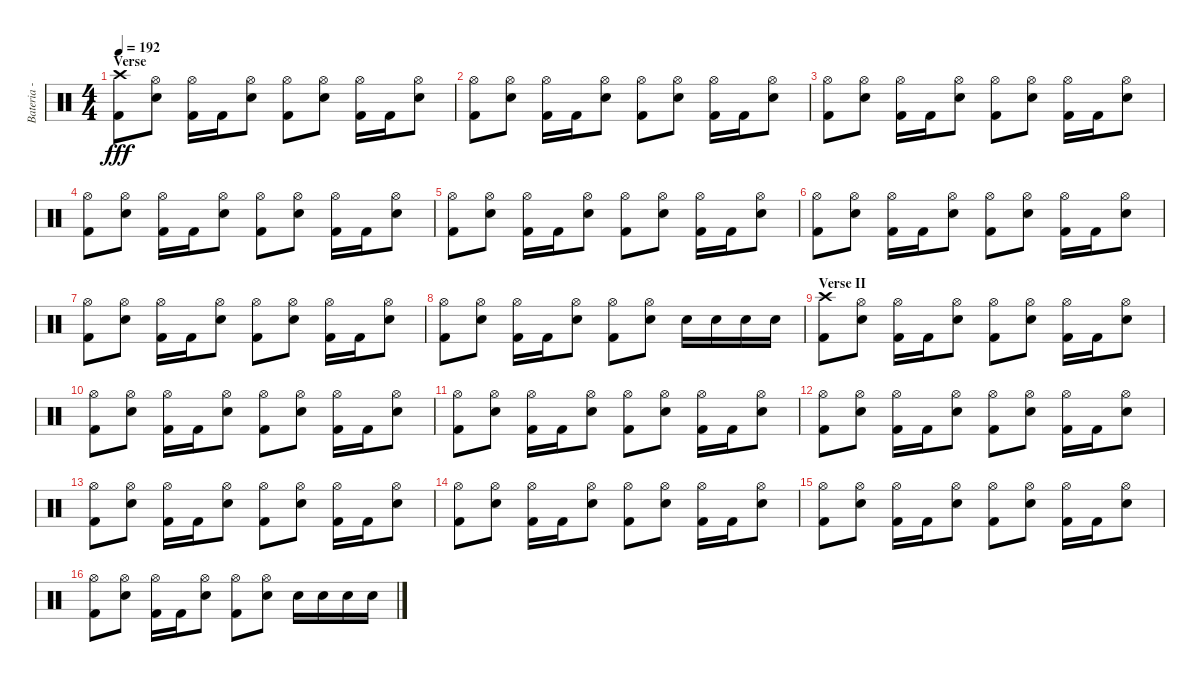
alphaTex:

\track ("Bateria - Larzon" "Bateria - ") {instrument percussion}
\staff {score}
\articulation defaults
\ts (4 4)
\section ("" "Verse")
\tempo 192
\clef neutral
\ks c
("Kick (hit) 2" "Crash high (hit)").8{dy fff} ("Electric Snare (hit)" "Hi-Hat (open)").8 ("Kick (hit) 2" "Hi-Hat (open)").16 "Kick (hit) 2".16 ("Electric Snare (hit)" "Hi-Hat (open)").8 ("Kick (hit) 2" "Hi-Hat (open)").8 ("Electric Snare (hit)" "Hi-Hat (open)").8 ("Kick (hit) 2" "Hi-Hat (open)").16 "Kick (hit) 2".16 ("Electric Snare (hit)" "Hi-Hat (open)").8 |
("Kick (hit) 2" "Hi-Hat (open)").8 ("Electric Snare (hit)" "Hi-Hat (open)").8 ("Kick (hit) 2" "Hi-Hat (open)").16 "Kick (hit) 2".16 ("Electric Snare (hit)" "Hi-Hat (open)").8 ("Kick (hit) 2" "Hi-Hat (open)").8 ("Electric Snare (hit)" "Hi-Hat (open)").8 ("Kick (hit) 2" "Hi-Hat (open)").16 "Kick (hit) 2".16 ("Electric Snare (hit)" "Hi-Hat (open)").8 |
("Kick (hit) 2" "Hi-Hat (open)").8 ("Electric Snare (hit)" "Hi-Hat (open)").8 ("Kick (hit) 2" "Hi-Hat (open)").16 "Kick (hit) 2".16 ("Electric Snare (hit)" "Hi-Hat (open)").8 ("Kick (hit) 2" "Hi-Hat (open)").8 ("Electric Snare (hit)" "Hi-Hat (open)").8 ("Kick (hit) 2" "Hi-Hat (open)").16 "Kick (hit) 2".16 ("Electric Snare (hit)" "Hi-Hat (open)").8 |
("Kick (hit) 2" "Hi-Hat (open)").8 ("Electric Snare (hit)" "Hi-Hat (open)").8 ("Kick (hit) 2" "Hi-Hat (open)").16 "Kick (hit) 2".16 ("Electric Snare (hit)" "Hi-Hat (open)").8 ("Kick (hit) 2" "Hi-Hat (open)").8 ("Electric Snare (hit)" "Hi-Hat (open)").8 ("Kick (hit) 2" "Hi-Hat (open)").16 "Kick (hit) 2".16 ("Electric Snare (hit)" "Hi-Hat (open)").8 |
("Kick (hit) 2" "Hi-Hat (open)").8 ("Electric Snare (hit)" "Hi-Hat (open)").8 ("Kick (hit) 2" "Hi-Hat (open)").16 "Kick (hit) 2".16 ("Electric Snare (hit)" "Hi-Hat (open)").8 ("Kick (hit) 2" "Hi-Hat (open)").8 ("Electric Snare (hit)" "Hi-Hat (open)").8 ("Kick (hit) 2" "Hi-Hat (open)").16 "Kick (hit) 2".16 ("Electric Snare (hit)" "Hi-Hat (open)").8 |
("Kick (hit) 2" "Hi-Hat (open)").8 ("Electric Snare (hit)" "Hi-Hat (open)").8 ("Kick (hit) 2" "Hi-Hat (open)").16 "Kick (hit) 2".16 ("Electric Snare (hit)" "Hi-Hat (open)").8 ("Kick (hit) 2" "Hi-Hat (open)").8 ("Electric Snare (hit)" "Hi-Hat (open)").8 ("Kick (hit) 2" "Hi-Hat (open)").16 "Kick (hit) 2".16 ("Electric Snare (hit)" "Hi-Hat (open)").8 |
("Kick (hit) 2" "Hi-Hat (open)").8 ("Electric Snare (hit)" "Hi-Hat (open)").8 ("Kick (hit) 2" "Hi-Hat (open)").16 "Kick (hit) 2".16 ("Electric Snare (hit)" "Hi-Hat (open)").8 ("Kick (hit) 2" "Hi-Hat (open)").8 ("Electric Snare (hit)" "Hi-Hat (open)").8 ("Kick (hit) 2" "Hi-Hat (open)").16 "Kick (hit) 2".16 ("Electric Snare (hit)" "Hi-Hat (open)").8 |
("Kick (hit) 2" "Hi-Hat (open)").8 ("Electric Snare (hit)" "Hi-Hat (open)").8 ("Kick (hit) 2" "Hi-Hat (open)").16 "Kick (hit) 2".16 ("Electric Snare (hit)" "Hi-Hat (open)").8 ("Kick (hit) 2" "Hi-Hat (open)").8 ("Electric Snare (hit)" "Hi-Hat (open)").8 "Electric Snare (hit)".16 "Electric Snare (hit)".16 "Electric Snare (hit)".16 "Electric Snare (hit)".16 |
\section ("" "Verse II")
("Kick (hit) 2" "Crash high (hit)").8 ("Electric Snare (hit)" "Hi-Hat (open)").8 ("Kick (hit) 2" "Hi-Hat (open)").16 "Kick (hit) 2".16 ("Electric Snare (hit)" "Hi-Hat (open)").8 ("Kick (hit) 2" "Hi-Hat (open)").8 ("Electric Snare (hit)" "Hi-Hat (open)").8 ("Kick (hit) 2" "Hi-Hat (open)").16 "Kick (hit) 2".16 ("Electric Snare (hit)" "Hi-Hat (open)").8 |
("Kick (hit) 2" "Hi-Hat (open)").8 ("Electric Snare (hit)" "Hi-Hat (open)").8 ("Kick (hit) 2" "Hi-Hat (open)").16 "Kick (hit) 2".16 ("Electric Snare (hit)" "Hi-Hat (open)").8 ("Kick (hit) 2" "Hi-Hat (open)").8 ("Electric Snare (hit)" "Hi-Hat (open)").8 ("Kick (hit) 2" "Hi-Hat (open)").16 "Kick (hit) 2".16 ("Electric Snare (hit)" "Hi-Hat (open)").8 |
("Kick (hit) 2" "Hi-Hat (open)").8 ("Electric Snare (hit)" "Hi-Hat (open)").8 ("Kick (hit) 2" "Hi-Hat (open)").16 "Kick (hit) 2".16 ("Electric Snare (hit)" "Hi-Hat (open)").8 ("Kick (hit) 2" "Hi-Hat (open)").8 ("Electric Snare (hit)" "Hi-Hat (open)").8 ("Kick (hit) 2" "Hi-Hat (open)").16 "Kick (hit) 2".16 ("Electric Snare (hit)" "Hi-Hat (open)").8 |
("Kick (hit) 2" "Hi-Hat (open)").8 ("Electric Snare (hit)" "Hi-Hat (open)").8 ("Kick (hit) 2" "Hi-Hat (open)").16 "Kick (hit) 2".16 ("Electric Snare (hit)" "Hi-Hat (open)").8 ("Kick (hit) 2" "Hi-Hat (open)").8 ("Electric Snare (hit)" "Hi-Hat (open)").8 ("Kick (hit) 2" "Hi-Hat (open)").16 "Kick (hit) 2".16 ("Electric Snare (hit)" "Hi-Hat (open)").8 |
("Kick (hit) 2" "Hi-Hat (open)").8 ("Electric Snare (hit)" "Hi-Hat (open)").8 ("Kick (hit) 2" "Hi-Hat (open)").16 "Kick (hit) 2".16 ("Electric Snare (hit)" "Hi-Hat (open)").8 ("Kick (hit) 2" "Hi-Hat (open)").8 ("Electric Snare (hit)" "Hi-Hat (open)").8 ("Kick (hit) 2" "Hi-Hat (open)").16 "Kick (hit) 2".16 ("Electric Snare (hit)" "Hi-Hat (open)").8 |
("Kick (hit) 2" "Hi-Hat (open)").8 ("Electric Snare (hit)" "Hi-Hat (open)").8 ("Kick (hit) 2" "Hi-Hat (open)").16 "Kick (hit) 2".16 ("Electric Snare (hit)" "Hi-Hat (open)").8 ("Kick (hit) 2" "Hi-Hat (open)").8 ("Electric Snare (hit)" "Hi-Hat (open)").8 ("Kick (hit) 2" "Hi-Hat (open)").16 "Kick (hit) 2".16 ("Electric Snare (hit)" "Hi-Hat (open)").8 |
("Kick (hit) 2" "Hi-Hat (open)").8 ("Electric Snare (hit)" "Hi-Hat (open)").8 ("Kick (hit) 2" "Hi-Hat (open)").16 "Kick (hit) 2".16 ("Electric Snare (hit)" "Hi-Hat (open)").8 ("Kick (hit) 2" "Hi-Hat (open)").8 ("Electric Snare (hit)" "Hi-Hat (open)").8 ("Kick (hit) 2" "Hi-Hat (open)").16 "Kick (hit) 2".16 ("Electric Snare (hit)" "Hi-Hat (open)").8 |
("Kick (hit) 2" "Hi-Hat (open)").8 ("Electric Snare (hit)" "Hi-Hat (open)").8 ("Kick (hit) 2" "Hi-Hat (open)").16 "Kick (hit) 2".16 ("Electric Snare (hit)" "Hi-Hat (open)").8 ("Kick (hit) 2" "Hi-Hat (open)").8 ("Electric Snare (hit)" "Hi-Hat (open)").8 "Electric Snare (hit)".16 "Electric Snare (hit)".16 "Electric Snare (hit)".16 "Electric Snare (hit)".16
